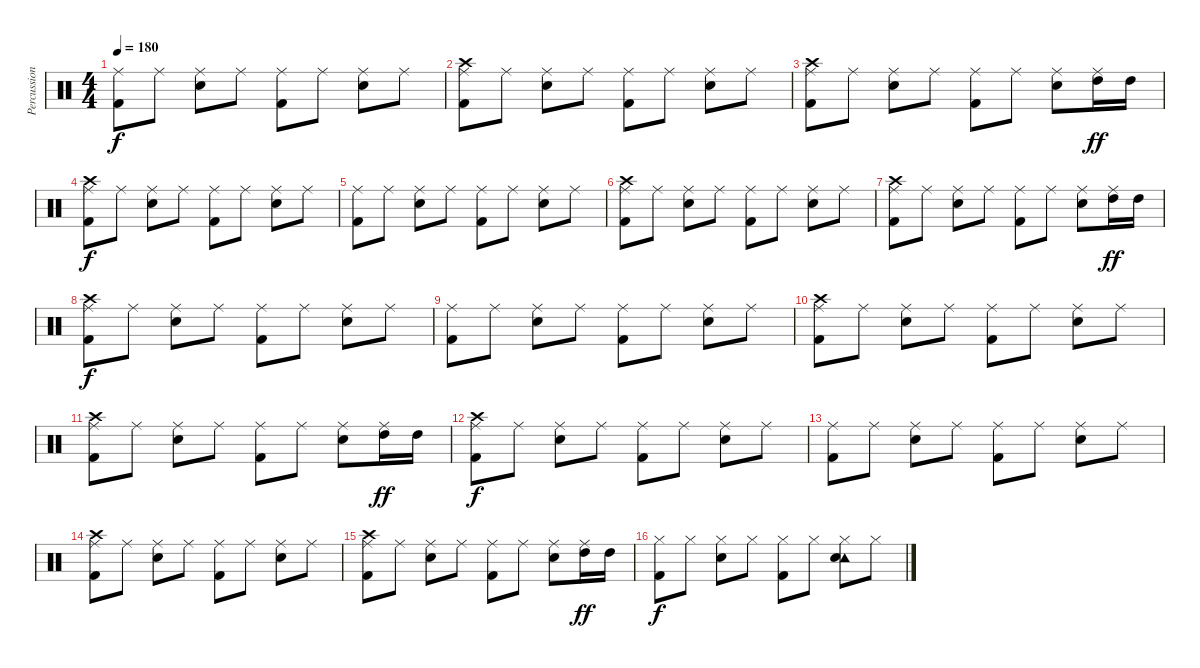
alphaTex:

\track ("Percussion" "Percussion") {instrument percussion}
\staff {score}
\articulation defaults
\ts (4 4)
\tempo 180
\clef neutral
\ks c
("Ride (middle)" "Kick (hit) 2").8{dy f} "Ride (middle)".8 ("Ride (middle)" "Electric Snare (hit)").8 "Ride (middle)".8 ("Ride (middle)" "Kick (hit) 2").8 "Ride (middle)".8 ("Ride (middle)" "Electric Snare (hit)").8 "Ride (middle)".8 |
("Crash high (hit)" "Ride (middle)" "Kick (hit) 2").8 "Ride (middle)".8 ("Ride (middle)" "Electric Snare (hit)").8 "Ride (middle)".8 ("Ride (middle)" "Kick (hit) 2").8 "Ride (middle)".8 ("Ride (middle)" "Electric Snare (hit)").8 "Ride (middle)".8 |
("Crash high (hit)" "Ride (middle)" "Kick (hit) 2").8 "Ride (middle)".8 ("Ride (middle)" "Electric Snare (hit)").8 "Ride (middle)".8 ("Ride (middle)" "Kick (hit) 2").8 "Ride (middle)".8 ("Ride (middle)" "Electric Snare (hit)").8 ("Ride (middle)" "High Tom (hit)").16{dy ff} "High Tom (hit)".16 |
("Crash high (hit)" "Ride (middle)" "Kick (hit) 2").8{dy f} "Ride (middle)".8 ("Ride (middle)" "Electric Snare (hit)").8 "Ride (middle)".8 ("Ride (middle)" "Kick (hit) 2").8 "Ride (middle)".8 ("Ride (middle)" "Electric Snare (hit)").8 "Ride (middle)".8 |
("Ride (middle)" "Kick (hit) 2").8 "Ride (middle)".8 ("Ride (middle)" "Electric Snare (hit)").8 "Ride (middle)".8 ("Ride (middle)" "Kick (hit) 2").8 "Ride (middle)".8 ("Ride (middle)" "Electric Snare (hit)").8 "Ride (middle)".8 |
("Crash high (hit)" "Ride (middle)" "Kick (hit) 2").8 "Ride (middle)".8 ("Ride (middle)" "Electric Snare (hit)").8 "Ride (middle)".8 ("Ride (middle)" "Kick (hit) 2").8 "Ride (middle)".8 ("Ride (middle)" "Electric Snare (hit)").8 "Ride (middle)".8 |
("Crash high (hit)" "Ride (middle)" "Kick (hit) 2").8 "Ride (middle)".8 ("Ride (middle)" "Electric Snare (hit)").8 "Ride (middle)".8 ("Ride (middle)" "Kick (hit) 2").8 "Ride (middle)".8 ("Ride (middle)" "Electric Snare (hit)").8 ("Ride (middle)" "High Tom (hit)").16{dy ff} "High Tom (hit)".16 |
("Crash high (hit)" "Ride (middle)" "Kick (hit) 2").8{dy f} "Ride (middle)".8 ("Ride (middle)" "Electric Snare (hit)").8 "Ride (middle)".8 ("Ride (middle)" "Kick (hit) 2").8 "Ride (middle)".8 ("Ride (middle)" "Electric Snare (hit)").8 "Ride (middle)".8 |
("Ride (middle)" "Kick (hit) 2").8 "Ride (middle)".8 ("Ride (middle)" "Electric Snare (hit)").8 "Ride (middle)".8 ("Ride (middle)" "Kick (hit) 2").8 "Ride (middle)".8 ("Ride (middle)" "Electric Snare (hit)").8 "Ride (middle)".8 |
("Crash high (hit)" "Ride (middle)" "Kick (hit) 2").8 "Ride (middle)".8 ("Ride (middle)" "Electric Snare (hit)").8 "Ride (middle)".8 ("Ride (middle)" "Kick (hit) 2").8 "Ride (middle)".8 ("Ride (middle)" "Electric Snare (hit)").8 "Ride (middle)".8 |
("Crash high (hit)" "Ride (middle)" "Kick (hit) 2").8 "Ride (middle)".8 ("Ride (middle)" "Electric Snare (hit)").8 "Ride (middle)".8 ("Ride (middle)" "Kick (hit) 2").8 "Ride (middle)".8 ("Ride (middle)" "Electric Snare (hit)").8 ("Ride (middle)" "High Tom (hit)").16{dy ff} "High Tom (hit)".16 |
("Crash high (hit)" "Ride (middle)" "Kick (hit) 2").8{dy f} "Ride (middle)".8 ("Ride (middle)" "Electric Snare (hit)").8 "Ride (middle)".8 ("Ride (middle)" "Kick (hit) 2").8 "Ride (middle)".8 ("Ride (middle)" "Electric Snare (hit)").8 "Ride (middle)".8 |
("Ride (middle)" "Kick (hit) 2").8 "Ride (middle)".8 ("Ride (middle)" "Electric Snare (hit)").8 "Ride (middle)".8 ("Ride (middle)" "Kick (hit) 2").8 "Ride (middle)".8 ("Ride (middle)" "Electric Snare (hit)").8 "Ride (middle)".8 |
("Crash high (hit)" "Ride (middle)" "Kick (hit) 2").8 "Ride (middle)".8 ("Ride (middle)" "Electric Snare (hit)").8 "Ride (middle)".8 ("Ride (middle)" "Kick (hit) 2").8 "Ride (middle)".8 ("Ride (middle)" "Electric Snare (hit)").8 "Ride (middle)".8 |
("Crash high (hit)" "Ride (middle)" "Kick (hit) 2").8 "Ride (middle)".8 ("Ride (middle)" "Electric Snare (hit)").8 "Ride (middle)".8 ("Ride (middle)" "Kick (hit) 2").8 "Ride (middle)".8 ("Ride (middle)" "Electric Snare (hit)").8 ("Ride (middle)" "High Tom (hit)").16{dy ff} "High Tom (hit)".16 |
("Hi-Hat (closed)" "Kick (hit) 2").8{dy f} "Hi-Hat (closed)".8 ("Hi-Hat (closed)" "Electric Snare (hit)").8 "Hi-Hat (closed)".8 ("Hi-Hat (closed)" "Kick (hit) 2").8 "Hi-Hat (closed)".8 ("Tambourine (hit)" "Hi-Hat (closed)" "Electric Snare (hit)").8 "Hi-Hat (closed)".8
